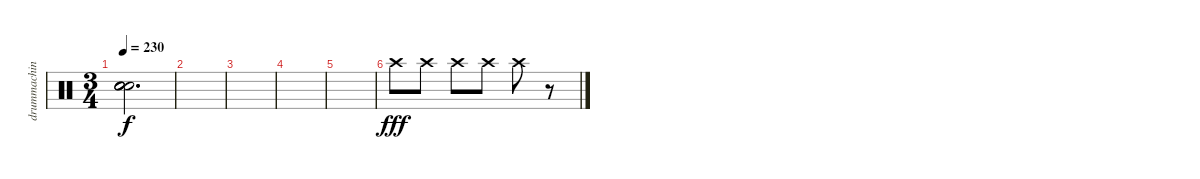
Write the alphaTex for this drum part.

\track ("drummachine" "drummachin") {instrument percussion}
\staff {score}
\articulation defaults
\ts (3 4)
\tempo 230
\clef neutral
\ks c
("Snare (hit)"{t} "Snare (hit)"{t} "Snare (hit)"{t} "Snare (hit)"{t}).2{d dy f} |
|
|
|
|
"Crash high (hit)".8{dy fff} "Crash high (hit)".8 "Crash high (hit)".8 "Crash high (hit)".8 "Crash high (hit)".8 r.8
